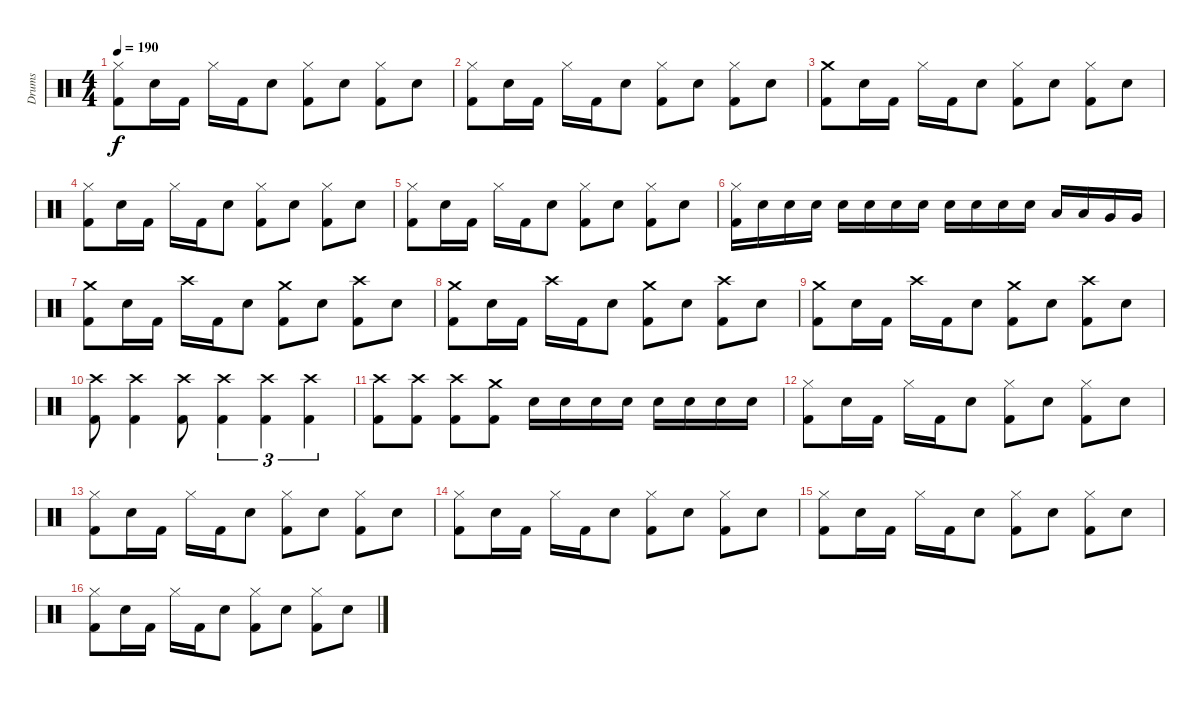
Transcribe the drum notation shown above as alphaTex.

\track ("Drums" "Drums") {instrument percussion}
\staff {score}
\articulation defaults
\ts (4 4)
\tempo 190
\clef neutral
\ks c
("Hi-Hat (closed)" "Kick (hit) 2").8{dy f} "Electric Snare (hit)".16 "Kick (hit) 2".16 "Hi-Hat (closed)".16 "Kick (hit) 2".16 "Electric Snare (hit)".8 ("Hi-Hat (closed)" "Kick (hit) 2").8 "Electric Snare (hit)".8 ("Hi-Hat (closed)" "Kick (hit) 2").8 "Electric Snare (hit)".8 |
("Hi-Hat (closed)" "Kick (hit) 2").8 "Electric Snare (hit)".16 "Kick (hit) 2".16 "Hi-Hat (closed)".16 "Kick (hit) 2".16 "Electric Snare (hit)".8 ("Hi-Hat (closed)" "Kick (hit) 2").8 "Electric Snare (hit)".8 ("Hi-Hat (closed)" "Kick (hit) 2").8 "Electric Snare (hit)".8 |
("Crash medium (hit)" "Kick (hit) 2").8 "Electric Snare (hit)".16 "Kick (hit) 2".16 "Hi-Hat (closed)".16 "Kick (hit) 2".16 "Electric Snare (hit)".8 ("Hi-Hat (closed)" "Kick (hit) 2").8 "Electric Snare (hit)".8 ("Hi-Hat (closed)" "Kick (hit) 2").8 "Electric Snare (hit)".8 |
("Hi-Hat (closed)" "Kick (hit) 2").8 "Electric Snare (hit)".16 "Kick (hit) 2".16 "Hi-Hat (closed)".16 "Kick (hit) 2".16 "Electric Snare (hit)".8 ("Hi-Hat (closed)" "Kick (hit) 2").8 "Electric Snare (hit)".8 ("Hi-Hat (closed)" "Kick (hit) 2").8 "Electric Snare (hit)".8 |
("Hi-Hat (closed)" "Kick (hit) 2").8 "Electric Snare (hit)".16 "Kick (hit) 2".16 "Hi-Hat (closed)".16 "Kick (hit) 2".16 "Electric Snare (hit)".8 ("Hi-Hat (closed)" "Kick (hit) 2").8 "Electric Snare (hit)".8 ("Hi-Hat (closed)" "Kick (hit) 2").8 "Electric Snare (hit)".8 |
("Hi-Hat (closed)" "Kick (hit) 2").16 "Electric Snare (hit)".16 "Electric Snare (hit)".16 "Electric Snare (hit)".16 "Electric Snare (hit)".16 "Electric Snare (hit)".16 "Electric Snare (hit)".16 "Electric Snare (hit)".16 "Electric Snare (hit)".16 "Electric Snare (hit)".16 "Electric Snare (hit)".16 "Electric Snare (hit)".16 "Low Tom (hit)".16 "Low Tom (hit)".16 "Very Low Tom (hit)".16 "Very Low Tom (hit)".16 |
("Crash medium (hit)" "Kick (hit) 2").8 "Electric Snare (hit)".16 "Kick (hit) 2".16 "Crash high (hit)".16 "Kick (hit) 2".16 "Electric Snare (hit)".8 ("Crash medium (hit)" "Kick (hit) 2").8 "Electric Snare (hit)".8 ("Crash high (hit)" "Kick (hit) 2").8 "Electric Snare (hit)".8 |
("Crash medium (hit)" "Kick (hit) 2").8 "Electric Snare (hit)".16 "Kick (hit) 2".16 "Crash high (hit)".16 "Kick (hit) 2".16 "Electric Snare (hit)".8 ("Crash medium (hit)" "Kick (hit) 2").8 "Electric Snare (hit)".8 ("Crash high (hit)" "Kick (hit) 2").8 "Electric Snare (hit)".8 |
("Crash medium (hit)" "Kick (hit) 2").8 "Electric Snare (hit)".16 "Kick (hit) 2".16 "Crash high (hit)".16 "Kick (hit) 2".16 "Electric Snare (hit)".8 ("Crash medium (hit)" "Kick (hit) 2").8 "Electric Snare (hit)".8 ("Crash high (hit)" "Kick (hit) 2").8 "Electric Snare (hit)".8 |
("Crash high (hit)" "Kick (hit) 2").8 ("Crash high (hit)" "Kick (hit) 2").4 ("Crash high (hit)" "Kick (hit) 2").8 ("Crash high (hit)" "Kick (hit) 2").4{tu (3 2)} ("Crash high (hit)" "Kick (hit) 2").4{tu (3 2)} ("Crash high (hit)" "Kick (hit) 2").4{tu (3 2)} |
("Crash high (hit)" "Kick (hit) 2").8 ("Crash high (hit)" "Kick (hit) 2").8 ("Crash high (hit)" "Kick (hit) 2").8 ("Crash medium (hit)" "Kick (hit) 2").8 "Electric Snare (hit)".16 "Electric Snare (hit)".16 "Electric Snare (hit)".16 "Electric Snare (hit)".16 "Electric Snare (hit)".16 "Electric Snare (hit)".16 "Electric Snare (hit)".16 "Electric Snare (hit)".16 |
("Hi-Hat (closed)" "Kick (hit) 2").8 "Electric Snare (hit)".16 "Kick (hit) 2".16 "Hi-Hat (closed)".16 "Kick (hit) 2".16 "Electric Snare (hit)".8 ("Hi-Hat (closed)" "Kick (hit) 2").8 "Electric Snare (hit)".8 ("Hi-Hat (closed)" "Kick (hit) 2").8 "Electric Snare (hit)".8 |
("Hi-Hat (closed)" "Kick (hit) 2").8 "Electric Snare (hit)".16 "Kick (hit) 2".16 "Hi-Hat (closed)".16 "Kick (hit) 2".16 "Electric Snare (hit)".8 ("Hi-Hat (closed)" "Kick (hit) 2").8 "Electric Snare (hit)".8 ("Hi-Hat (closed)" "Kick (hit) 2").8 "Electric Snare (hit)".8 |
("Hi-Hat (closed)" "Kick (hit) 2").8 "Electric Snare (hit)".16 "Kick (hit) 2".16 "Hi-Hat (closed)".16 "Kick (hit) 2".16 "Electric Snare (hit)".8 ("Hi-Hat (closed)" "Kick (hit) 2").8 "Electric Snare (hit)".8 ("Hi-Hat (closed)" "Kick (hit) 2").8 "Electric Snare (hit)".8 |
("Hi-Hat (closed)" "Kick (hit) 2").8 "Electric Snare (hit)".16 "Kick (hit) 2".16 "Hi-Hat (closed)".16 "Kick (hit) 2".16 "Electric Snare (hit)".8 ("Hi-Hat (closed)" "Kick (hit) 2").8 "Electric Snare (hit)".8 ("Hi-Hat (closed)" "Kick (hit) 2").8 "Electric Snare (hit)".8 |
("Hi-Hat (closed)" "Kick (hit) 2").8 "Electric Snare (hit)".16 "Kick (hit) 2".16 "Hi-Hat (closed)".16 "Kick (hit) 2".16 "Electric Snare (hit)".8 ("Hi-Hat (closed)" "Kick (hit) 2").8 "Electric Snare (hit)".8 ("Hi-Hat (closed)" "Kick (hit) 2").8 "Electric Snare (hit)".8
